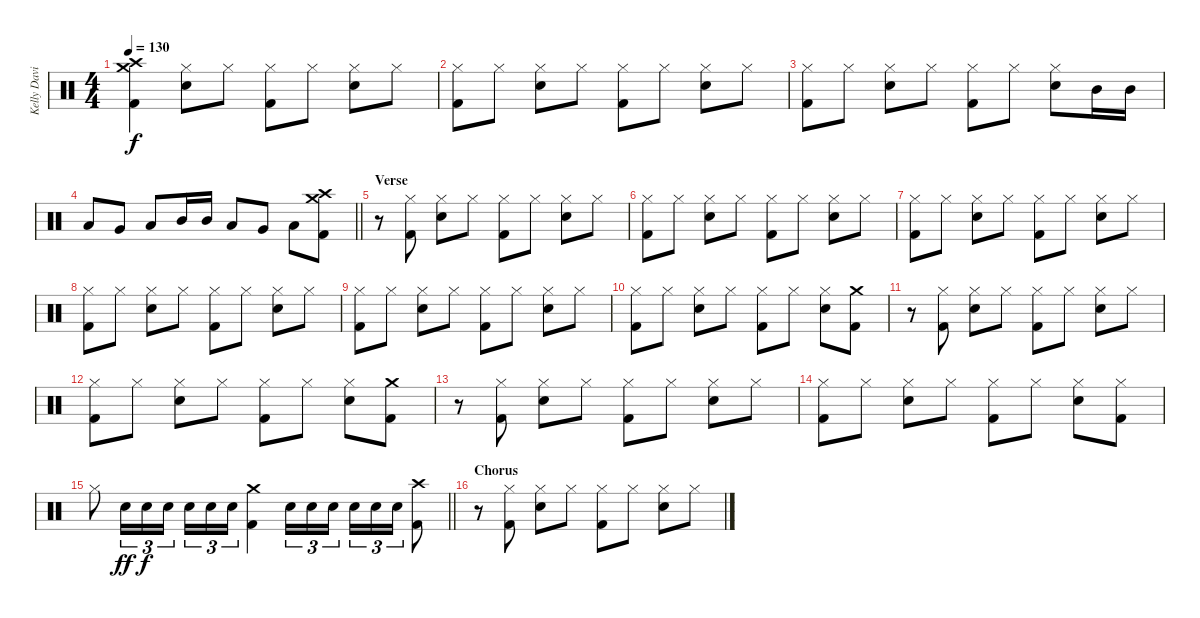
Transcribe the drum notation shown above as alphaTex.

\track ("Kelly David Smith" "Kelly Davi") {instrument percussion}
\staff {score}
\articulation defaults
\ts (4 4)
\tempo 130
\clef neutral
\ks c
("Crash high (hit)" "Crash medium (hit)" "Kick (hit) 2").4{dy f} ("Hi-Hat (closed)" "Snare (hit) 2").8 "Hi-Hat (closed)".8 ("Hi-Hat (closed)" "Kick (hit) 2").8 "Hi-Hat (closed)".8 ("Hi-Hat (closed)" "Snare (hit) 2").8 "Hi-Hat (closed)".8 |
("Hi-Hat (closed)" "Kick (hit) 2").8 "Hi-Hat (closed)".8 ("Hi-Hat (closed)" "Snare (hit) 2").8 "Hi-Hat (closed)".8 ("Hi-Hat (closed)" "Kick (hit) 2").8 "Hi-Hat (closed)".8 ("Hi-Hat (closed)" "Snare (hit) 2").8 "Hi-Hat (closed)".8 |
("Hi-Hat (closed)" "Kick (hit) 2").8 "Hi-Hat (closed)".8 ("Hi-Hat (closed)" "Snare (hit) 2").8 "Hi-Hat (closed)".8 ("Hi-Hat (closed)" "Kick (hit) 2").8 "Hi-Hat (closed)".8 ("Hi-Hat (closed)" "Snare (hit) 2").8 "Mid Tom (hit)".16 "Mid Tom (hit)".16 |
\barLineRight lightlight "Low Tom (hit)".8 "Very Low Tom (hit)".8 "Low Floor Tom (hit)".8 "Mid Tom (hit)".16 "Mid Tom (hit)".16 "Low Tom (hit)".8 "Very Low Tom (hit)".8 "Low Floor Tom (hit)".8
("Crash high (hit)" "Crash medium (hit)" "Kick (hit) 2").8 |
\section ("" "Verse")
r.8 ("Hi-Hat (closed)" "Kick (hit) 2").8 ("Hi-Hat (closed)" "Snare (hit) 2").8 "Hi-Hat (closed)".8 ("Hi-Hat (closed)" "Kick (hit) 2").8 "Hi-Hat (closed)".8 ("Hi-Hat (closed)" "Snare (hit) 2").8 "Hi-Hat (closed)".8 |
("Hi-Hat (closed)" "Kick (hit) 2").8 "Hi-Hat (closed)".8 ("Hi-Hat (closed)" "Snare (hit) 2").8 "Hi-Hat (closed)".8 ("Hi-Hat (closed)" "Kick (hit) 2").8 "Hi-Hat (closed)".8 ("Hi-Hat (closed)" "Snare (hit) 2").8 "Hi-Hat (closed)".8 |
("Hi-Hat (closed)" "Kick (hit) 2").8 "Hi-Hat (closed)".8 ("Hi-Hat (closed)" "Snare (hit) 2").8 "Hi-Hat (closed)".8 ("Hi-Hat (closed)" "Kick (hit) 2").8 "Hi-Hat (closed)".8 ("Hi-Hat (closed)" "Snare (hit) 2").8 "Hi-Hat (closed)".8 |
("Hi-Hat (closed)" "Kick (hit) 2").8 "Hi-Hat (closed)".8 ("Hi-Hat (closed)" "Snare (hit) 2").8 "Hi-Hat (closed)".8 ("Hi-Hat (closed)" "Kick (hit) 2").8 "Hi-Hat (closed)".8 ("Hi-Hat (closed)" "Snare (hit) 2").8 "Hi-Hat (closed)".8 |
("Hi-Hat (closed)" "Kick (hit) 2").8 "Hi-Hat (closed)".8 ("Hi-Hat (closed)" "Snare (hit) 2").8 "Hi-Hat (closed)".8 ("Hi-Hat (closed)" "Kick (hit) 2").8 "Hi-Hat (closed)".8 ("Hi-Hat (closed)" "Snare (hit) 2").8 "Hi-Hat (closed)".8 |
("Hi-Hat (closed)" "Kick (hit) 2").8 "Hi-Hat (closed)".8 ("Hi-Hat (closed)" "Snare (hit) 2").8 "Hi-Hat (closed)".8 ("Hi-Hat (closed)" "Kick (hit) 2").8 "Hi-Hat (closed)".8 ("Hi-Hat (closed)" "Snare (hit) 2").8 ("Crash medium (hit)" "Kick (hit) 2").8 |
r.8 ("Hi-Hat (closed)" "Kick (hit) 2").8 ("Hi-Hat (closed)" "Snare (hit) 2").8 "Hi-Hat (closed)".8 ("Hi-Hat (closed)" "Kick (hit) 2").8 "Hi-Hat (closed)".8 ("Hi-Hat (closed)" "Snare (hit) 2").8 "Hi-Hat (closed)".8 |
("Hi-Hat (closed)" "Kick (hit) 2").8 "Hi-Hat (closed)".8 ("Hi-Hat (closed)" "Snare (hit) 2").8 "Hi-Hat (closed)".8 ("Hi-Hat (closed)" "Kick (hit) 2").8 "Hi-Hat (closed)".8 ("Hi-Hat (closed)" "Snare (hit) 2").8 ("Crash medium (hit)" "Kick (hit) 2").8 |
r.8 ("Hi-Hat (closed)" "Kick (hit) 2").8 ("Hi-Hat (closed)" "Snare (hit) 2").8 "Hi-Hat (closed)".8 ("Hi-Hat (closed)" "Kick (hit) 2").8 "Hi-Hat (closed)".8 ("Hi-Hat (closed)" "Snare (hit) 2").8 "Hi-Hat (closed)".8 |
("Hi-Hat (closed)" "Kick (hit) 2").8 "Hi-Hat (closed)".8 ("Hi-Hat (closed)" "Snare (hit) 2").8 "Hi-Hat (closed)".8 ("Hi-Hat (closed)" "Kick (hit) 2").8 "Hi-Hat (closed)".8 ("Hi-Hat (closed)" "Snare (hit) 2").8 ("Hi-Hat (closed)" "Kick (hit) 2").8 |
\barLineRight lightlight "Hi-Hat (closed)".8 "Snare (hit) 2".16{tu (3 2) dy ff} "Snare (hit) 2".16{tu (3 2) dy f} "Snare (hit) 2".16{tu (3 2)} "Snare (hit) 2".16{tu (3 2)} "Snare (hit) 2".16{tu (3 2)} "Snare (hit) 2".16{tu (3 2)}
("Crash medium (hit)" "Kick (hit) 2").4 "Snare (hit) 2".16{tu (3 2)} "Snare (hit) 2".16{tu (3 2)} "Snare (hit) 2".16{tu (3 2)} "Snare (hit) 2".16{tu (3 2)} "Snare (hit) 2".16{tu (3 2)} "Snare (hit) 2".16{tu (3 2)} ("Crash high (hit)" "Kick (hit) 2").8 |
\section ("" "Chorus")
r.8 ("Hi-Hat (closed)" "Kick (hit) 2").8 ("Hi-Hat (closed)" "Snare (hit) 2").8 "Hi-Hat (closed)".8 ("Hi-Hat (closed)" "Kick (hit) 2").8 "Hi-Hat (closed)".8 ("Hi-Hat (closed)" "Snare (hit) 2").8 "Hi-Hat (closed)".8
